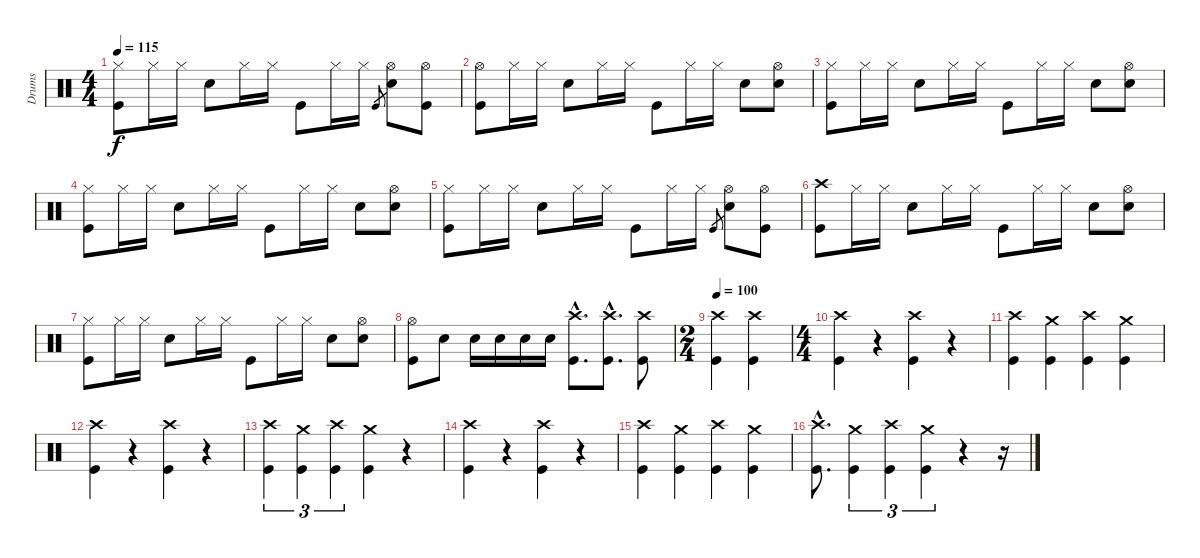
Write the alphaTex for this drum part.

\track ("Drums" "Drums") {instrument percussion}
\staff {score}
\articulation defaults
\ts (4 4)
\tempo 115
\clef neutral
\ks c
("Hi-Hat (closed)" "Kick (hit)").8{dy f} "Hi-Hat (closed)".16 "Hi-Hat (closed)".16 "Snare (hit) 2".8 "Hi-Hat (closed)".16 "Hi-Hat (closed)".16 "Kick (hit)".8 "Hi-Hat (closed)".16 "Hi-Hat (closed)".16 "Kick (hit)".8{gr} ("Hi-Hat (open)" "Snare (hit) 2").8 ("Hi-Hat (open)" "Kick (hit)").8 |
("Hi-Hat (open)" "Kick (hit)").8 "Hi-Hat (closed)".16 "Hi-Hat (closed)".16 "Snare (hit) 2".8 "Hi-Hat (closed)".16 "Hi-Hat (closed)".16 "Kick (hit)".8 "Hi-Hat (closed)".16 "Hi-Hat (closed)".16 "Snare (hit) 2".8 ("Hi-Hat (open)" "Snare (hit) 2").8 |
("Hi-Hat (closed)" "Kick (hit)").8 "Hi-Hat (closed)".16 "Hi-Hat (closed)".16 "Snare (hit) 2".8 "Hi-Hat (closed)".16 "Hi-Hat (closed)".16 "Kick (hit)".8 "Hi-Hat (closed)".16 "Hi-Hat (closed)".16 "Snare (hit) 2".8 ("Hi-Hat (open)" "Snare (hit) 2").8 |
("Hi-Hat (closed)" "Kick (hit)").8 "Hi-Hat (closed)".16 "Hi-Hat (closed)".16 "Snare (hit) 2".8 "Hi-Hat (closed)".16 "Hi-Hat (closed)".16 "Kick (hit)".8 "Hi-Hat (closed)".16 "Hi-Hat (closed)".16 "Snare (hit) 2".8 ("Hi-Hat (open)" "Snare (hit) 2").8 |
("Hi-Hat (closed)" "Kick (hit)").8 "Hi-Hat (closed)".16 "Hi-Hat (closed)".16 "Snare (hit) 2".8 "Hi-Hat (closed)".16 "Hi-Hat (closed)".16 "Kick (hit)".8 "Hi-Hat (closed)".16 "Hi-Hat (closed)".16 "Kick (hit)".8{gr} ("Hi-Hat (open)" "Snare (hit) 2").8 ("Hi-Hat (open)" "Kick (hit)").8 |
("Crash high (hit)" "Kick (hit)").8 "Hi-Hat (closed)".16 "Hi-Hat (closed)".16 "Snare (hit) 2".8 "Hi-Hat (closed)".16 "Hi-Hat (closed)".16 "Kick (hit)".8 "Hi-Hat (closed)".16 "Hi-Hat (closed)".16 "Snare (hit) 2".8 ("Hi-Hat (open)" "Snare (hit) 2").8 |
("Hi-Hat (closed)" "Kick (hit)").8 "Hi-Hat (closed)".16 "Hi-Hat (closed)".16 "Snare (hit) 2".8 "Hi-Hat (closed)".16 "Hi-Hat (closed)".16 "Kick (hit)".8 "Hi-Hat (closed)".16 "Hi-Hat (closed)".16 "Snare (hit) 2".8 ("Hi-Hat (open)" "Snare (hit) 2").8 |
("Hi-Hat (open)" "Kick (hit)").8 "Snare (hit) 2".8 "Snare (hit) 2".16 "Snare (hit) 2".16 "Snare (hit) 2".16 "Snare (hit) 2".16 ("Crash high (hit)"{hac} "Kick (hit)"{hac}).8{d} ("Crash high (hit)"{hac} "Kick (hit)"{hac}).8{d} ("Crash high (hit)" "Kick (hit)").8 |
\ts (2 4)
\tempo 100
("Crash high (hit)" "Kick (hit)").4 ("Crash high (hit)" "Kick (hit)").4 |
\ts (4 4)
("Crash high (hit)" "Kick (hit)").4 r.4 ("Crash high (hit)" "Kick (hit)").4 r.4 |
("Crash high (hit)" "Kick (hit)").4 ("Crash medium (hit)" "Kick (hit)").4 ("Crash high (hit)" "Kick (hit)").4 ("Crash medium (hit)" "Kick (hit)").4 |
("Crash high (hit)" "Kick (hit)").4 r.4 ("Crash high (hit)" "Kick (hit)").4 r.4 |
("Crash high (hit)" "Kick (hit)").4{tu (3 2)} ("Crash medium (hit)" "Kick (hit)").4{tu (3 2)} ("Crash high (hit)" "Kick (hit)").4{tu (3 2)} ("Crash medium (hit)" "Kick (hit)").4 r.4 |
("Crash high (hit)" "Kick (hit)").4 r.4 ("Crash high (hit)" "Kick (hit)").4 r.4 |
("Crash high (hit)" "Kick (hit)").4 ("Crash medium (hit)" "Kick (hit)").4 ("Crash high (hit)" "Kick (hit)").4 ("Crash medium (hit)" "Kick (hit)").4 |
("Crash high (hit)"{hac} "Kick (hit)"{hac}).8{d} ("Crash medium (hit)" "Kick (hit)").4{tu (3 2)} ("Crash high (hit)" "Kick (hit)").4{tu (3 2)} ("Crash medium (hit)" "Kick (hit)").4{tu (3 2)} r.4 r.16
